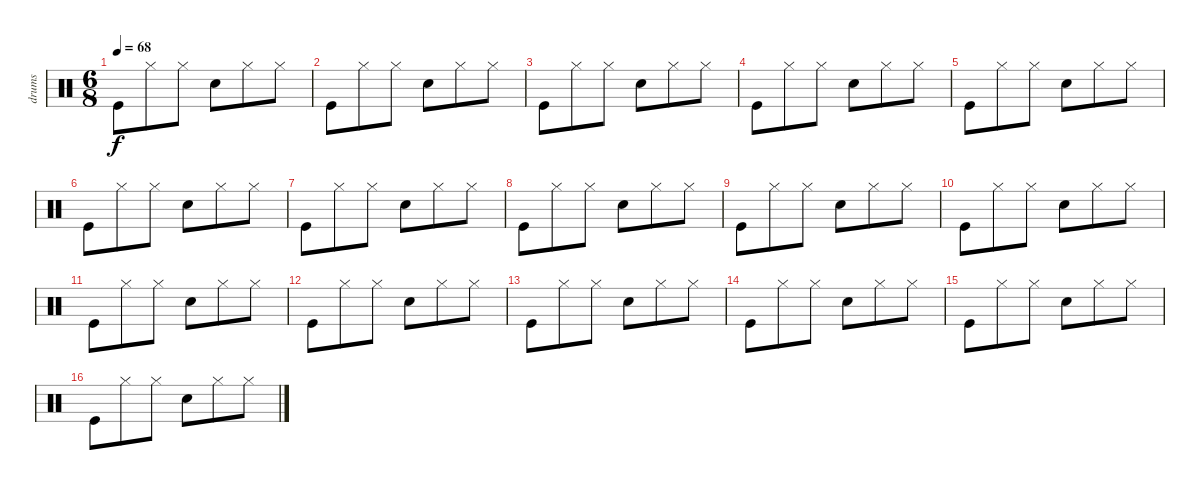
\track ("drums" "drums") {instrument percussion}
\staff {score}
\articulation defaults
\ts (6 8)
\tempo 68
\clef neutral
\ks c "Kick (hit)".8{dy f} "Hi-Hat (closed)".8 "Hi-Hat (closed)".8 "Snare (hit) 2".8 "Hi-Hat (closed)".8 "Hi-Hat (closed)".8
|
"Kick (hit)".8 "Hi-Hat (closed)".8 "Hi-Hat (closed)".8 "Snare (hit) 2".8 "Hi-Hat (closed)".8 "Hi-Hat (closed)".8 |
"Kick (hit)".8 "Hi-Hat (closed)".8 "Hi-Hat (closed)".8 "Snare (hit) 2".8 "Hi-Hat (closed)".8 "Hi-Hat (closed)".8 |
"Kick (hit)".8 "Hi-Hat (closed)".8 "Hi-Hat (closed)".8 "Snare (hit) 2".8 "Hi-Hat (closed)".8 "Hi-Hat (closed)".8 |
"Kick (hit)".8 "Hi-Hat (closed)".8 "Hi-Hat (closed)".8 "Snare (hit) 2".8 "Hi-Hat (closed)".8 "Hi-Hat (closed)".8 |
"Kick (hit)".8 "Hi-Hat (closed)".8 "Hi-Hat (closed)".8 "Snare (hit) 2".8 "Hi-Hat (closed)".8 "Hi-Hat (closed)".8 |
"Kick (hit)".8 "Hi-Hat (closed)".8 "Hi-Hat (closed)".8 "Snare (hit) 2".8 "Hi-Hat (closed)".8 "Hi-Hat (closed)".8 |
"Kick (hit)".8 "Hi-Hat (closed)".8 "Hi-Hat (closed)".8 "Snare (hit) 2".8 "Hi-Hat (closed)".8 "Hi-Hat (closed)".8 |
"Kick (hit)".8 "Hi-Hat (closed)".8 "Hi-Hat (closed)".8 "Snare (hit) 2".8 "Hi-Hat (closed)".8 "Hi-Hat (closed)".8 |
"Kick (hit)".8 "Hi-Hat (closed)".8 "Hi-Hat (closed)".8 "Snare (hit) 2".8 "Hi-Hat (closed)".8 "Hi-Hat (closed)".8 |
"Kick (hit)".8 "Hi-Hat (closed)".8 "Hi-Hat (closed)".8 "Snare (hit) 2".8 "Hi-Hat (closed)".8 "Hi-Hat (closed)".8 |
"Kick (hit)".8 "Hi-Hat (closed)".8 "Hi-Hat (closed)".8 "Snare (hit) 2".8 "Hi-Hat (closed)".8 "Hi-Hat (closed)".8 |
"Kick (hit)".8 "Hi-Hat (closed)".8 "Hi-Hat (closed)".8 "Snare (hit) 2".8 "Hi-Hat (closed)".8 "Hi-Hat (closed)".8 |
"Kick (hit)".8 "Hi-Hat (closed)".8 "Hi-Hat (closed)".8 "Snare (hit) 2".8 "Hi-Hat (closed)".8 "Hi-Hat (closed)".8 |
"Kick (hit)".8 "Hi-Hat (closed)".8 "Hi-Hat (closed)".8 "Snare (hit) 2".8 "Hi-Hat (closed)".8 "Hi-Hat (closed)".8 |
"Kick (hit)".8 "Hi-Hat (closed)".8 "Hi-Hat (closed)".8 "Snare (hit) 2".8 "Hi-Hat (closed)".8 "Hi-Hat (closed)".8
